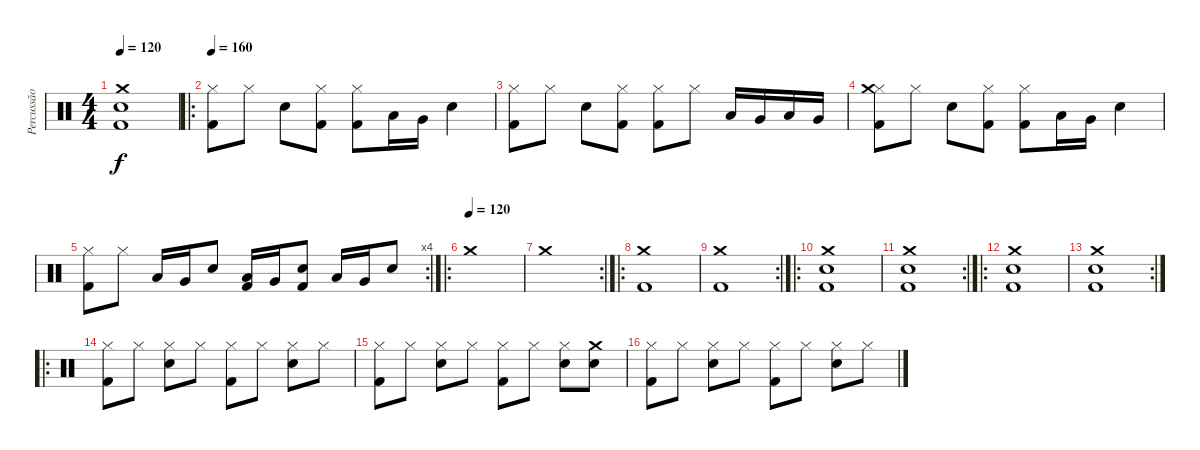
\track ("Percussão" "Percussão") {instrument percussion}
\staff {score}
\articulation defaults
\ts (4 4)
\tempo 120
\clef neutral
\ks c
("Electric Snare (hit)" "Crash medium (hit)" "Kick (hit) 2").1{dy f} |
\ro
\tempo 150
\tempo 160
("Hi-Hat (closed)" "Kick (hit) 2").8 "Hi-Hat (closed)".8 "Electric Snare (hit)".8 ("Hi-Hat (closed)" "Kick (hit) 2").8 ("Hi-Hat (closed)" "Kick (hit) 2").8 "Low Floor Tom (hit)".16 "Very Low Tom (hit)".16 "Electric Snare (hit)".4 |
("Hi-Hat (closed)" "Kick (hit) 2").8 "Hi-Hat (closed)".8 "Electric Snare (hit)".8 ("Hi-Hat (closed)" "Kick (hit) 2").8 ("Hi-Hat (closed)" "Kick (hit) 2").8 "Hi-Hat (closed)".8 "Low Floor Tom (hit)".16 "Very Low Tom (hit)".16 "Low Floor Tom (hit)".16 "Very Low Tom (hit)".16 |
("Hi-Hat (closed)" "Crash medium (hit)" "Kick (hit) 2").8 "Hi-Hat (closed)".8 "Electric Snare (hit)".8 ("Hi-Hat (closed)" "Kick (hit) 2").8 ("Hi-Hat (closed)" "Kick (hit) 2").8 "Low Floor Tom (hit)".16 "Very Low Tom (hit)".16 "Electric Snare (hit)".4 |
\rc 4
("Hi-Hat (closed)" "Kick (hit) 2").8 "Hi-Hat (closed)".8 "Low Floor Tom (hit)".16 "Very Low Tom (hit)".16 "Electric Snare (hit)".8 ("Low Floor Tom (hit)" "Kick (hit) 2").16 "Very Low Tom (hit)".16 ("Electric Snare (hit)" "Kick (hit) 2").8 "Low Floor Tom (hit)".16 "Very Low Tom (hit)".16 "Electric Snare (hit)".8 |
\ro
\tempo (120)
"Crash medium (hit)".1 |
\rc 2 "Crash medium (hit)".1
|
\ro
("Crash medium (hit)" "Kick (hit) 2").1 |
\rc 2
("Crash medium (hit)" "Kick (hit) 2").1 |
\ro
("Crash medium (hit)" "Electric Snare (hit)" "Kick (hit) 2").1 |
\rc 2
("Crash medium (hit)" "Electric Snare (hit)" "Kick (hit) 2").1 |
\ro
("Crash medium (hit)" "Electric Snare (hit)" "Kick (hit) 2").1 |
\rc 2
("Crash medium (hit)" "Electric Snare (hit)" "Kick (hit) 2").1 |
\ro
("Hi-Hat (closed)" "Kick (hit) 2").8 "Hi-Hat (closed)".8 ("Hi-Hat (closed)" "Electric Snare (hit)").8 "Hi-Hat (closed)".8 ("Hi-Hat (closed)" "Kick (hit) 2").8 "Hi-Hat (closed)".8 ("Hi-Hat (closed)" "Electric Snare (hit)").8 "Hi-Hat (closed)".8 |
("Hi-Hat (closed)" "Kick (hit) 2").8 "Hi-Hat (closed)".8 ("Hi-Hat (closed)" "Electric Snare (hit)").8 "Hi-Hat (closed)".8 ("Hi-Hat (closed)" "Kick (hit) 2").8 "Hi-Hat (closed)".8 ("Hi-Hat (closed)" "Electric Snare (hit)").8 ("Electric Snare (hit)" "Crash medium (hit)").8 |
("Hi-Hat (closed)" "Kick (hit) 2").8 "Hi-Hat (closed)".8 ("Hi-Hat (closed)" "Electric Snare (hit)").8 "Hi-Hat (closed)".8 ("Hi-Hat (closed)" "Kick (hit) 2").8 "Hi-Hat (closed)".8 ("Hi-Hat (closed)" "Electric Snare (hit)").8 "Hi-Hat (closed)".8
